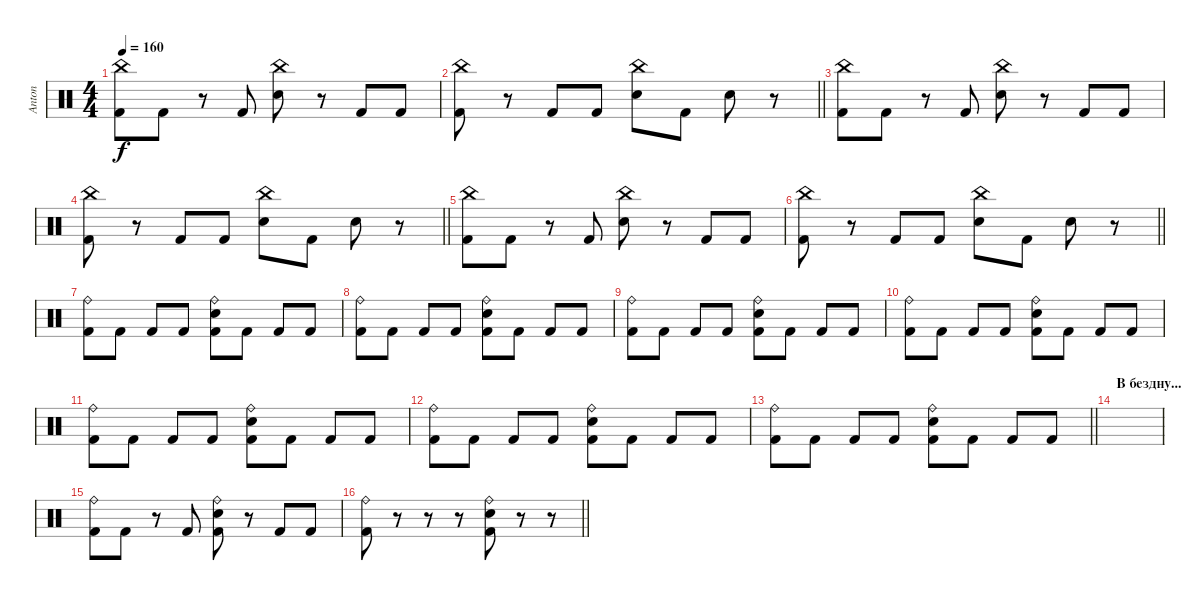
\track ("Anton" "Anton") {instrument percussion}
\staff {score}
\articulation defaults
\ts (4 4)
\tempo 160
\clef neutral
\ks c
("Kick (hit) 2" "China (hit)").8{dy f} "Kick (hit) 2".8 r.8 "Kick (hit) 2".8 ("Electric Snare (hit)" "China (hit)").8 r.8 "Kick (hit) 2".8 "Kick (hit) 2".8 |
\barLineRight lightlight
("Kick (hit) 2" "China (hit)").8 r.8 "Kick (hit) 2".8 "Kick (hit) 2".8 ("Electric Snare (hit)" "China (hit)").8 "Kick (hit) 2".8 "Electric Snare (hit)".8 r.8 |
("Kick (hit) 2" "China (hit)").8 "Kick (hit) 2".8 r.8 "Kick (hit) 2".8 ("Electric Snare (hit)" "China (hit)").8 r.8 "Kick (hit) 2".8 "Kick (hit) 2".8 |
\barLineRight lightlight
("Kick (hit) 2" "China (hit)").8 r.8 "Kick (hit) 2".8 "Kick (hit) 2".8 ("Electric Snare (hit)" "China (hit)").8 "Kick (hit) 2".8 "Electric Snare (hit)".8 r.8 |
("Kick (hit) 2" "China (hit)").8 "Kick (hit) 2".8 r.8 "Kick (hit) 2".8 ("Electric Snare (hit)" "China (hit)").8 r.8 "Kick (hit) 2".8 "Kick (hit) 2".8 |
\barLineRight lightlight
("Kick (hit) 2" "China (hit)").8 r.8 "Kick (hit) 2".8 "Kick (hit) 2".8 ("Electric Snare (hit)" "China (hit)").8 "Kick (hit) 2".8 "Electric Snare (hit)".8 r.8 |
("Kick (hit) 2" "Ride (bell)").8 "Kick (hit) 2".8 "Kick (hit) 2".8 "Kick (hit) 2".8 ("Kick (hit) 2" "Electric Snare (hit)" "Ride (bell)").8 "Kick (hit) 2".8 "Kick (hit) 2".8 "Kick (hit) 2".8 |
("Kick (hit) 2" "Ride (bell)").8 "Kick (hit) 2".8 "Kick (hit) 2".8 "Kick (hit) 2".8 ("Kick (hit) 2" "Electric Snare (hit)" "Ride (bell)").8 "Kick (hit) 2".8 "Kick (hit) 2".8 "Kick (hit) 2".8 |
("Kick (hit) 2" "Ride (bell)").8 "Kick (hit) 2".8 "Kick (hit) 2".8 "Kick (hit) 2".8 ("Kick (hit) 2" "Electric Snare (hit)" "Ride (bell)").8 "Kick (hit) 2".8 "Kick (hit) 2".8 "Kick (hit) 2".8 |
("Kick (hit) 2" "Ride (bell)").8 "Kick (hit) 2".8 "Kick (hit) 2".8 "Kick (hit) 2".8 ("Kick (hit) 2" "Electric Snare (hit)" "Ride (bell)").8 "Kick (hit) 2".8 "Kick (hit) 2".8 "Kick (hit) 2".8 |
("Kick (hit) 2" "Ride (bell)").8 "Kick (hit) 2".8 "Kick (hit) 2".8 "Kick (hit) 2".8 ("Kick (hit) 2" "Electric Snare (hit)" "Ride (bell)").8 "Kick (hit) 2".8 "Kick (hit) 2".8 "Kick (hit) 2".8 |
("Kick (hit) 2" "Ride (bell)").8 "Kick (hit) 2".8 "Kick (hit) 2".8 "Kick (hit) 2".8 ("Kick (hit) 2" "Electric Snare (hit)" "Ride (bell)").8 "Kick (hit) 2".8 "Kick (hit) 2".8 "Kick (hit) 2".8 |
\barLineRight lightlight
("Kick (hit) 2" "Ride (bell)").8 "Kick (hit) 2".8 "Kick (hit) 2".8 "Kick (hit) 2".8 ("Kick (hit) 2" "Electric Snare (hit)" "Ride (bell)").8 "Kick (hit) 2".8 "Kick (hit) 2".8 "Kick (hit) 2".8 |
\section ("" "В бездну...")
|
("Kick (hit) 2" "Ride (bell)").8 "Kick (hit) 2".8 r.8 "Kick (hit) 2".8 ("Kick (hit) 2" "Electric Snare (hit)" "Ride (bell)").8 r.8 "Kick (hit) 2".8 "Kick (hit) 2".8 |
\barLineRight lightlight
("Kick (hit) 2" "Ride (bell)").8 r.8 r.8 r.8 ("Kick (hit) 2" "Electric Snare (hit)" "Ride (bell)").8 r.8 r.8
